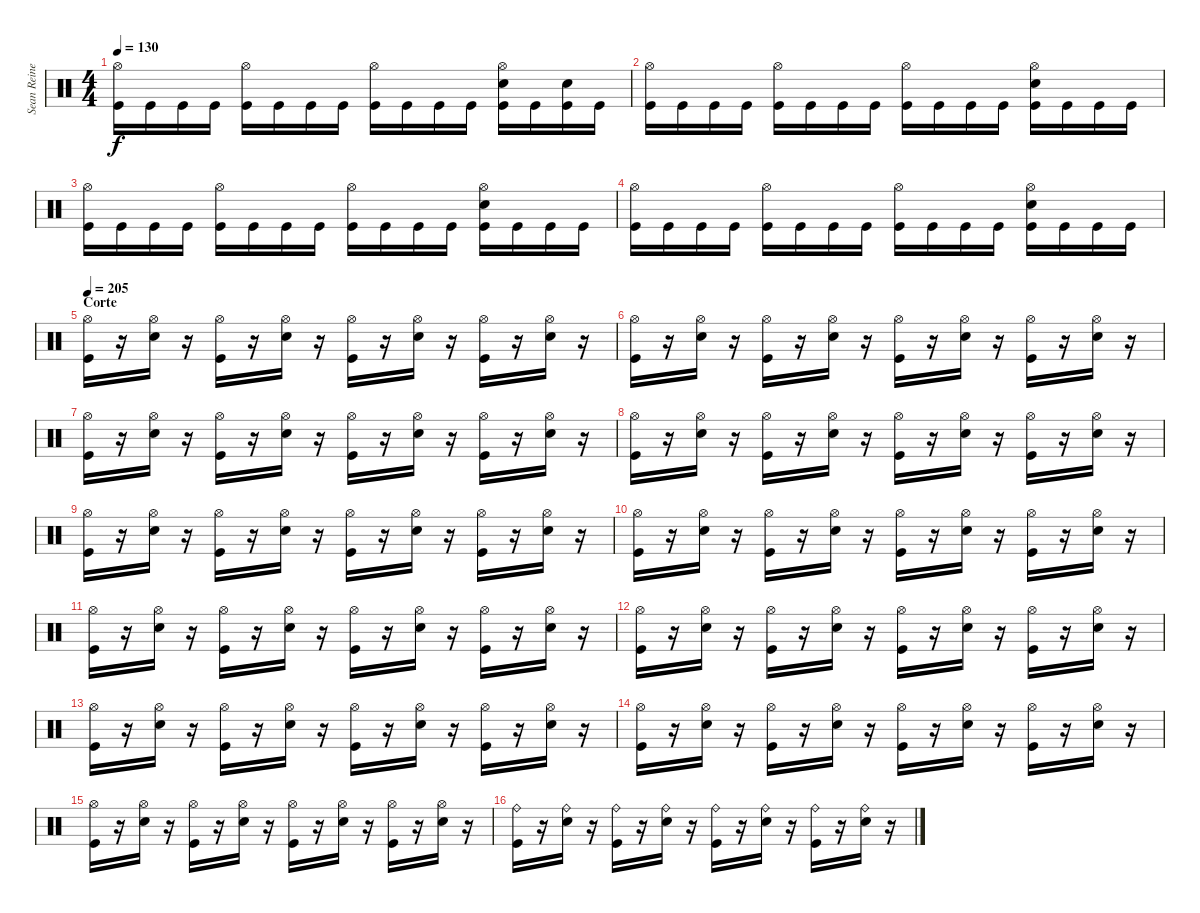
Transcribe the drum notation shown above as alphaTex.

\track ("Sean Reinert" "Sean Reine") {instrument percussion}
\staff {score}
\articulation defaults
\ts (4 4)
\tempo 130
\clef neutral
\ks c
("Hi-Hat (open)" "Kick (hit)").16{dy f} "Kick (hit)".16 "Kick (hit)".16 "Kick (hit)".16 ("Hi-Hat (open)" "Kick (hit)").16 "Kick (hit)".16 "Kick (hit)".16 "Kick (hit)".16 ("Hi-Hat (open)" "Kick (hit)").16 "Kick (hit)".16 "Kick (hit)".16 "Kick (hit)".16 ("Hi-Hat (open)" "Snare (hit) 2" "Kick (hit)").16 "Kick (hit)".16 ("Snare (hit) 2" "Kick (hit)").16 "Kick (hit)".16 |
("Hi-Hat (open)" "Kick (hit)").16 "Kick (hit)".16 "Kick (hit)".16 "Kick (hit)".16 ("Hi-Hat (open)" "Kick (hit)").16 "Kick (hit)".16 "Kick (hit)".16 "Kick (hit)".16 ("Hi-Hat (open)" "Kick (hit)").16 "Kick (hit)".16 "Kick (hit)".16 "Kick (hit)".16 ("Hi-Hat (open)" "Snare (hit) 2" "Kick (hit)").16 "Kick (hit)".16 "Kick (hit)".16 "Kick (hit)".16 |
("Hi-Hat (open)" "Kick (hit)").16 "Kick (hit)".16 "Kick (hit)".16 "Kick (hit)".16 ("Hi-Hat (open)" "Kick (hit)").16 "Kick (hit)".16 "Kick (hit)".16 "Kick (hit)".16 ("Hi-Hat (open)" "Kick (hit)").16 "Kick (hit)".16 "Kick (hit)".16 "Kick (hit)".16 ("Hi-Hat (open)" "Snare (hit) 2" "Kick (hit)").16 "Kick (hit)".16 "Kick (hit)".16 "Kick (hit)".16 |
("Hi-Hat (open)" "Kick (hit)").16 "Kick (hit)".16 "Kick (hit)".16 "Kick (hit)".16 ("Hi-Hat (open)" "Kick (hit)").16 "Kick (hit)".16 "Kick (hit)".16 "Kick (hit)".16 ("Hi-Hat (open)" "Kick (hit)").16 "Kick (hit)".16 "Kick (hit)".16 "Kick (hit)".16 ("Hi-Hat (open)" "Snare (hit) 2" "Kick (hit)").16 "Kick (hit)".16 "Kick (hit)".16 "Kick (hit)".16 |
\section ("" "Corte")
\tempo 205
("Hi-Hat (open)" "Kick (hit)").16 r.16 ("Hi-Hat (open)" "Snare (hit) 2").16 r.16 ("Hi-Hat (open)" "Kick (hit)").16 r.16 ("Hi-Hat (open)" "Snare (hit) 2").16 r.16 ("Hi-Hat (open)" "Kick (hit)").16 r.16 ("Hi-Hat (open)" "Snare (hit) 2").16 r.16 ("Hi-Hat (open)" "Kick (hit)").16 r.16 ("Hi-Hat (open)" "Snare (hit) 2").16 r.16 |
("Hi-Hat (open)" "Kick (hit)").16 r.16 ("Hi-Hat (open)" "Snare (hit) 2").16 r.16 ("Hi-Hat (open)" "Kick (hit)").16 r.16 ("Hi-Hat (open)" "Snare (hit) 2").16 r.16 ("Hi-Hat (open)" "Kick (hit)").16 r.16 ("Hi-Hat (open)" "Snare (hit) 2").16 r.16 ("Hi-Hat (open)" "Kick (hit)").16 r.16 ("Hi-Hat (open)" "Snare (hit) 2").16 r.16 |
("Hi-Hat (open)" "Kick (hit)").16 r.16 ("Hi-Hat (open)" "Snare (hit) 2").16 r.16 ("Hi-Hat (open)" "Kick (hit)").16 r.16 ("Hi-Hat (open)" "Snare (hit) 2").16 r.16 ("Hi-Hat (open)" "Kick (hit)").16 r.16 ("Hi-Hat (open)" "Snare (hit) 2").16 r.16 ("Hi-Hat (open)" "Kick (hit)").16 r.16 ("Hi-Hat (open)" "Snare (hit) 2").16 r.16 |
("Hi-Hat (open)" "Kick (hit)").16 r.16 ("Hi-Hat (open)" "Snare (hit) 2").16 r.16 ("Hi-Hat (open)" "Kick (hit)").16 r.16 ("Hi-Hat (open)" "Snare (hit) 2").16 r.16 ("Hi-Hat (open)" "Kick (hit)").16 r.16 ("Hi-Hat (open)" "Snare (hit) 2").16 r.16 ("Hi-Hat (open)" "Kick (hit)").16 r.16 ("Hi-Hat (open)" "Snare (hit) 2").16 r.16 |
("Hi-Hat (open)" "Kick (hit)").16 r.16 ("Hi-Hat (open)" "Snare (hit) 2").16 r.16 ("Hi-Hat (open)" "Kick (hit)").16 r.16 ("Hi-Hat (open)" "Snare (hit) 2").16 r.16 ("Hi-Hat (open)" "Kick (hit)").16 r.16 ("Hi-Hat (open)" "Snare (hit) 2").16 r.16 ("Hi-Hat (open)" "Kick (hit)").16 r.16 ("Hi-Hat (open)" "Snare (hit) 2").16 r.16 |
("Hi-Hat (open)" "Kick (hit)").16 r.16 ("Hi-Hat (open)" "Snare (hit) 2").16 r.16 ("Hi-Hat (open)" "Kick (hit)").16 r.16 ("Hi-Hat (open)" "Snare (hit) 2").16 r.16 ("Hi-Hat (open)" "Kick (hit)").16 r.16 ("Hi-Hat (open)" "Snare (hit) 2").16 r.16 ("Hi-Hat (open)" "Kick (hit)").16 r.16 ("Hi-Hat (open)" "Snare (hit) 2").16 r.16 |
("Hi-Hat (open)" "Kick (hit)").16 r.16 ("Hi-Hat (open)" "Snare (hit) 2").16 r.16 ("Hi-Hat (open)" "Kick (hit)").16 r.16 ("Hi-Hat (open)" "Snare (hit) 2").16 r.16 ("Hi-Hat (open)" "Kick (hit)").16 r.16 ("Hi-Hat (open)" "Snare (hit) 2").16 r.16 ("Hi-Hat (open)" "Kick (hit)").16 r.16 ("Hi-Hat (open)" "Snare (hit) 2").16 r.16 |
("Hi-Hat (open)" "Kick (hit)").16 r.16 ("Hi-Hat (open)" "Snare (hit) 2").16 r.16 ("Hi-Hat (open)" "Kick (hit)").16 r.16 ("Hi-Hat (open)" "Snare (hit) 2").16 r.16 ("Hi-Hat (open)" "Kick (hit)").16 r.16 ("Hi-Hat (open)" "Snare (hit) 2").16 r.16 ("Hi-Hat (open)" "Kick (hit)").16 r.16 ("Hi-Hat (open)" "Snare (hit) 2").16 r.16 |
("Hi-Hat (open)" "Kick (hit)").16 r.16 ("Hi-Hat (open)" "Snare (hit) 2").16 r.16 ("Hi-Hat (open)" "Kick (hit)").16 r.16 ("Hi-Hat (open)" "Snare (hit) 2").16 r.16 ("Hi-Hat (open)" "Kick (hit)").16 r.16 ("Hi-Hat (open)" "Snare (hit) 2").16 r.16 ("Hi-Hat (open)" "Kick (hit)").16 r.16 ("Hi-Hat (open)" "Snare (hit) 2").16 r.16 |
("Hi-Hat (open)" "Kick (hit)").16 r.16 ("Hi-Hat (open)" "Snare (hit) 2").16 r.16 ("Hi-Hat (open)" "Kick (hit)").16 r.16 ("Hi-Hat (open)" "Snare (hit) 2").16 r.16 ("Hi-Hat (open)" "Kick (hit)").16 r.16 ("Hi-Hat (open)" "Snare (hit) 2").16 r.16 ("Hi-Hat (open)" "Kick (hit)").16 r.16 ("Hi-Hat (open)" "Snare (hit) 2").16 r.16 |
("Hi-Hat (open)" "Kick (hit)").16 r.16 ("Hi-Hat (open)" "Snare (hit) 2").16 r.16 ("Hi-Hat (open)" "Kick (hit)").16 r.16 ("Hi-Hat (open)" "Snare (hit) 2").16 r.16 ("Hi-Hat (open)" "Kick (hit)").16 r.16 ("Hi-Hat (open)" "Snare (hit) 2").16 r.16 ("Hi-Hat (open)" "Kick (hit)").16 r.16 ("Hi-Hat (open)" "Snare (hit) 2").16 r.16 |
("Ride (bell)" "Kick (hit)").16 r.16 ("Ride (bell)" "Snare (hit) 2").16 r.16 ("Ride (bell)" "Kick (hit)").16 r.16 ("Ride (bell)" "Snare (hit) 2").16 r.16 ("Ride (bell)" "Kick (hit)").16 r.16 ("Ride (bell)" "Snare (hit) 2").16 r.16 ("Ride (bell)" "Kick (hit)").16 r.16 ("Ride (bell)" "Snare (hit) 2").16 r.16
